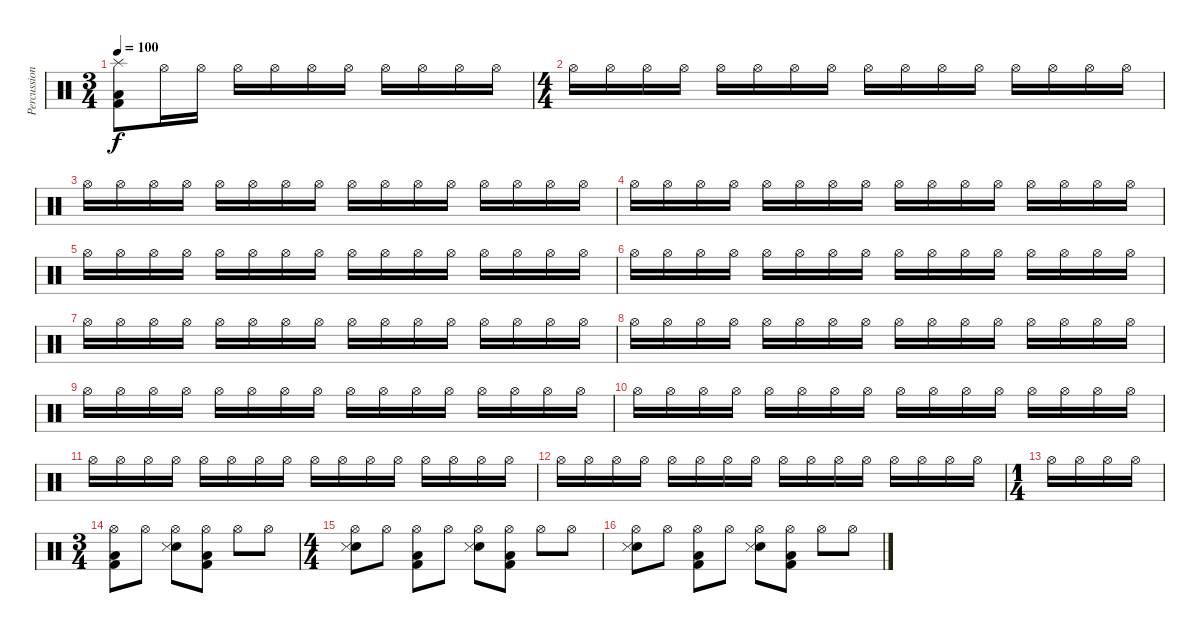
\track ("Percussions" "Percussion") {instrument percussion}
\staff {score}
\articulation defaults
\ts (3 4)
\tempo 100
\clef neutral
\ks c
("Splash (hit)" "Kick (hit) 2" "Low Floor Tom (hit)").8{dy f} "Hi-Hat (open)".16{volume 4} "Hi-Hat (open)".16 "Hi-Hat (open)".16 "Hi-Hat (open)".16 "Hi-Hat (open)".16 "Hi-Hat (open)".16 "Hi-Hat (open)".16 "Hi-Hat (open)".16 "Hi-Hat (open)".16 "Hi-Hat (open)".16 |
\ts (4 4)
"Hi-Hat (open)".16{volume 4} "Hi-Hat (open)".16 "Hi-Hat (open)".16 "Hi-Hat (open)".16 "Hi-Hat (open)".16 "Hi-Hat (open)".16 "Hi-Hat (open)".16 "Hi-Hat (open)".16 "Hi-Hat (open)".16 "Hi-Hat (open)".16 "Hi-Hat (open)".16 "Hi-Hat (open)".16 "Hi-Hat (open)".16 "Hi-Hat (open)".16 "Hi-Hat (open)".16 "Hi-Hat (open)".16 |
"Hi-Hat (open)".16{volume 4} "Hi-Hat (open)".16 "Hi-Hat (open)".16 "Hi-Hat (open)".16 "Hi-Hat (open)".16 "Hi-Hat (open)".16 "Hi-Hat (open)".16 "Hi-Hat (open)".16 "Hi-Hat (open)".16 "Hi-Hat (open)".16 "Hi-Hat (open)".16 "Hi-Hat (open)".16 "Hi-Hat (open)".16 "Hi-Hat (open)".16 "Hi-Hat (open)".16 "Hi-Hat (open)".16 |
"Hi-Hat (open)".16{volume 4} "Hi-Hat (open)".16 "Hi-Hat (open)".16 "Hi-Hat (open)".16 "Hi-Hat (open)".16 "Hi-Hat (open)".16 "Hi-Hat (open)".16 "Hi-Hat (open)".16 "Hi-Hat (open)".16 "Hi-Hat (open)".16 "Hi-Hat (open)".16 "Hi-Hat (open)".16 "Hi-Hat (open)".16 "Hi-Hat (open)".16 "Hi-Hat (open)".16 "Hi-Hat (open)".16 |
"Hi-Hat (open)".16{volume 4} "Hi-Hat (open)".16 "Hi-Hat (open)".16 "Hi-Hat (open)".16 "Hi-Hat (open)".16 "Hi-Hat (open)".16 "Hi-Hat (open)".16 "Hi-Hat (open)".16 "Hi-Hat (open)".16 "Hi-Hat (open)".16 "Hi-Hat (open)".16 "Hi-Hat (open)".16 "Hi-Hat (open)".16 "Hi-Hat (open)".16 "Hi-Hat (open)".16 "Hi-Hat (open)".16 |
"Hi-Hat (open)".16{volume 4} "Hi-Hat (open)".16 "Hi-Hat (open)".16 "Hi-Hat (open)".16 "Hi-Hat (open)".16 "Hi-Hat (open)".16 "Hi-Hat (open)".16 "Hi-Hat (open)".16 "Hi-Hat (open)".16 "Hi-Hat (open)".16 "Hi-Hat (open)".16 "Hi-Hat (open)".16 "Hi-Hat (open)".16 "Hi-Hat (open)".16 "Hi-Hat (open)".16 "Hi-Hat (open)".16 |
"Hi-Hat (open)".16{volume 4} "Hi-Hat (open)".16 "Hi-Hat (open)".16 "Hi-Hat (open)".16 "Hi-Hat (open)".16 "Hi-Hat (open)".16 "Hi-Hat (open)".16 "Hi-Hat (open)".16 "Hi-Hat (open)".16 "Hi-Hat (open)".16 "Hi-Hat (open)".16 "Hi-Hat (open)".16 "Hi-Hat (open)".16 "Hi-Hat (open)".16 "Hi-Hat (open)".16 "Hi-Hat (open)".16 |
"Hi-Hat (open)".16{volume 4} "Hi-Hat (open)".16 "Hi-Hat (open)".16 "Hi-Hat (open)".16 "Hi-Hat (open)".16 "Hi-Hat (open)".16 "Hi-Hat (open)".16 "Hi-Hat (open)".16 "Hi-Hat (open)".16 "Hi-Hat (open)".16 "Hi-Hat (open)".16 "Hi-Hat (open)".16 "Hi-Hat (open)".16 "Hi-Hat (open)".16 "Hi-Hat (open)".16 "Hi-Hat (open)".16 |
"Hi-Hat (open)".16{volume 4} "Hi-Hat (open)".16 "Hi-Hat (open)".16 "Hi-Hat (open)".16 "Hi-Hat (open)".16 "Hi-Hat (open)".16 "Hi-Hat (open)".16 "Hi-Hat (open)".16 "Hi-Hat (open)".16 "Hi-Hat (open)".16 "Hi-Hat (open)".16 "Hi-Hat (open)".16 "Hi-Hat (open)".16 "Hi-Hat (open)".16 "Hi-Hat (open)".16 "Hi-Hat (open)".16 |
"Hi-Hat (open)".16{volume 4} "Hi-Hat (open)".16 "Hi-Hat (open)".16 "Hi-Hat (open)".16 "Hi-Hat (open)".16 "Hi-Hat (open)".16 "Hi-Hat (open)".16 "Hi-Hat (open)".16 "Hi-Hat (open)".16 "Hi-Hat (open)".16 "Hi-Hat (open)".16 "Hi-Hat (open)".16 "Hi-Hat (open)".16 "Hi-Hat (open)".16 "Hi-Hat (open)".16 "Hi-Hat (open)".16 |
"Hi-Hat (open)".16{volume 4} "Hi-Hat (open)".16 "Hi-Hat (open)".16 "Hi-Hat (open)".16 "Hi-Hat (open)".16 "Hi-Hat (open)".16 "Hi-Hat (open)".16 "Hi-Hat (open)".16 "Hi-Hat (open)".16 "Hi-Hat (open)".16 "Hi-Hat (open)".16 "Hi-Hat (open)".16 "Hi-Hat (open)".16 "Hi-Hat (open)".16 "Hi-Hat (open)".16 "Hi-Hat (open)".16 |
"Hi-Hat (open)".16{volume 4} "Hi-Hat (open)".16 "Hi-Hat (open)".16 "Hi-Hat (open)".16 "Hi-Hat (open)".16 "Hi-Hat (open)".16 "Hi-Hat (open)".16 "Hi-Hat (open)".16 "Hi-Hat (open)".16 "Hi-Hat (open)".16 "Hi-Hat (open)".16 "Hi-Hat (open)".16 "Hi-Hat (open)".16 "Hi-Hat (open)".16 "Hi-Hat (open)".16 "Hi-Hat (open)".16 |
\ts (1 4)
"Hi-Hat (open)".16 "Hi-Hat (open)".16 "Hi-Hat (open)".16 "Hi-Hat (open)".16 |
\ts (3 4)
("Hi-Hat (open)" "Kick (hit) 2" "Low Floor Tom (hit)").8{volume 16} "Hi-Hat (open)".8 ("Hi-Hat (open)" "Snare (hit) 2" "Snare (side stick) 3").8 ("Hi-Hat (open)" "Kick (hit) 2" "Low Floor Tom (hit)").8 "Hi-Hat (open)".8 "Hi-Hat (open)".8 |
\ts (4 4)
("Hi-Hat (open)" "Snare (hit) 2" "Snare (side stick) 3").8 "Hi-Hat (open)".8 ("Hi-Hat (open)" "Kick (hit) 2" "Low Floor Tom (hit)").8 "Hi-Hat (open)".8 ("Hi-Hat (open)" "Snare (hit) 2" "Snare (side stick) 3").8 ("Hi-Hat (open)" "Kick (hit) 2" "Low Floor Tom (hit)").8 "Hi-Hat (open)".8 "Hi-Hat (open)".8 |
("Hi-Hat (open)" "Snare (hit) 2" "Snare (side stick) 3").8 "Hi-Hat (open)".8 ("Hi-Hat (open)" "Kick (hit) 2" "Low Floor Tom (hit)").8 "Hi-Hat (open)".8 ("Hi-Hat (open)" "Snare (hit) 2" "Snare (side stick) 3").8 ("Hi-Hat (open)" "Kick (hit) 2" "Low Floor Tom (hit)").8 "Hi-Hat (open)".8 "Hi-Hat (open)".8
